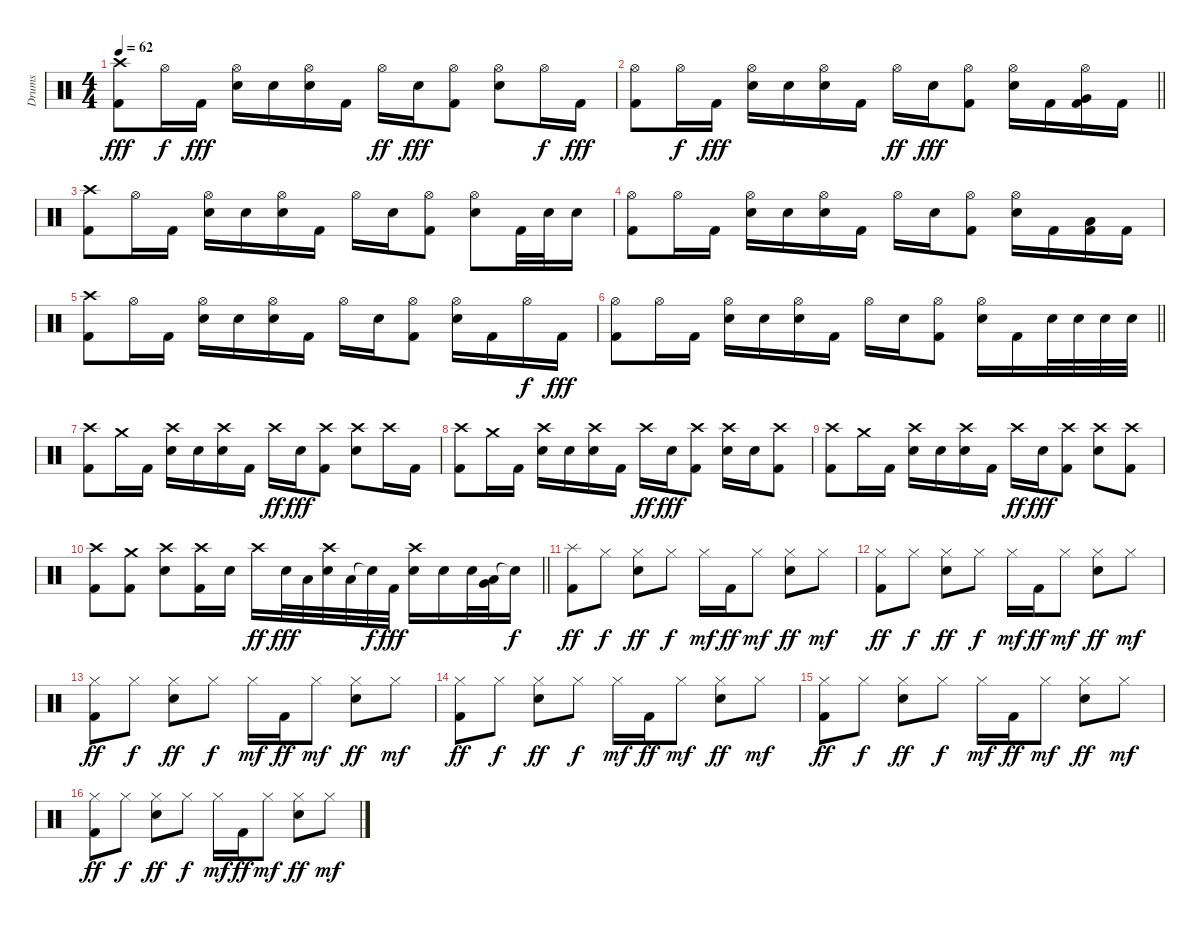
\track ("Drums" "Drums") {instrument percussion}
\staff {score}
\articulation defaults
\ts (4 4)
\tempo 62
\clef neutral
\ks c
("Crash high (hit)" "Kick (hit) 2").8{dy fff} "Hi-Hat (open)".16{dy f} "Kick (hit) 2".16{dy fff} ("Hi-Hat (open)" "Snare (hit) 2").16 "Snare (hit) 2".16 ("Hi-Hat (open)" "Snare (hit) 2").16 "Kick (hit) 2".16 "Hi-Hat (open)".16{dy ff} "Snare (hit) 2".16{dy fff} ("Hi-Hat (open)" "Kick (hit) 2").8 ("Hi-Hat (open)" "Snare (hit) 2").8 "Hi-Hat (open)".16{dy f} "Kick (hit) 2".16{dy fff} |
\barLineRight lightlight
("Hi-Hat (open)" "Kick (hit) 2").8 "Hi-Hat (open)".16{dy f} "Kick (hit) 2".16{dy fff} ("Hi-Hat (open)" "Snare (hit) 2").16 "Snare (hit) 2".16 ("Hi-Hat (open)" "Snare (hit) 2").16 "Kick (hit) 2".16 "Hi-Hat (open)".16{dy ff} "Snare (hit) 2".16{dy fff} ("Hi-Hat (open)" "Kick (hit) 2").8 ("Hi-Hat (open)" "Snare (hit) 2").16 "Kick (hit) 2".16 ("Hi-Hat (open)" "Very Low Tom (hit)" "Kick (hit) 2").16 "Kick (hit) 2".16 |
\section ("" "")
("Crash high (hit)" "Kick (hit) 2").8 "Hi-Hat (open)".16 "Kick (hit) 2".16 ("Hi-Hat (open)" "Snare (hit) 2").16 "Snare (hit) 2".16 ("Hi-Hat (open)" "Snare (hit) 2").16 "Kick (hit) 2".16 "Hi-Hat (open)".16 "Snare (hit) 2".16 ("Hi-Hat (open)" "Kick (hit) 2").8 ("Hi-Hat (open)" "Snare (hit) 2").8 "Kick (hit) 2".32 "Snare (hit) 2".32 "Snare (hit) 2".16 |
("Hi-Hat (open)" "Kick (hit) 2").8 "Hi-Hat (open)".16 "Kick (hit) 2".16 ("Hi-Hat (open)" "Snare (hit) 2").16 "Snare (hit) 2".16 ("Hi-Hat (open)" "Snare (hit) 2").16 "Kick (hit) 2".16 "Hi-Hat (open)".16 "Snare (hit) 2".16 ("Hi-Hat (open)" "Kick (hit) 2").8 ("Hi-Hat (open)" "Snare (hit) 2").16 "Kick (hit) 2".16 ("Low Tom (hit)" "Kick (hit) 2").16 "Kick (hit) 2".16 |
("Crash high (hit)" "Kick (hit) 2").8 "Hi-Hat (open)".16 "Kick (hit) 2".16 ("Hi-Hat (open)" "Snare (hit) 2").16 "Snare (hit) 2".16 ("Hi-Hat (open)" "Snare (hit) 2").16 "Kick (hit) 2".16 "Hi-Hat (open)".16 "Snare (hit) 2".16 ("Hi-Hat (open)" "Kick (hit) 2").8 ("Hi-Hat (open)" "Snare (hit) 2").16 "Kick (hit) 2".16 "Hi-Hat (open)".16{dy f} "Kick (hit) 2".16{dy fff} |
\barLineRight lightlight
("Hi-Hat (open)" "Kick (hit) 2").8 "Hi-Hat (open)".16 "Kick (hit) 2".16 ("Hi-Hat (open)" "Snare (hit) 2").16 "Snare (hit) 2".16 ("Hi-Hat (open)" "Snare (hit) 2").16 "Kick (hit) 2".16 "Hi-Hat (open)".16 "Snare (hit) 2".16 ("Hi-Hat (open)" "Kick (hit) 2").8 ("Hi-Hat (open)" "Snare (hit) 2").16 "Kick (hit) 2".16 "Snare (hit) 2".32 "Snare (hit) 2".32 "Snare (hit) 2".32 "Snare (hit) 2".32 |
\section ("" "")
("Crash high (hit)" "Kick (hit) 2").8 "Crash medium (hit)".16 "Kick (hit) 2".16 ("Crash high (hit)" "Snare (hit) 2").16 "Snare (hit) 2".16 ("Crash high (hit)" "Snare (hit) 2").16 "Kick (hit) 2".16 "Crash high (hit)".16{dy ff} "Snare (hit) 2".16{dy fff} ("Crash high (hit)" "Kick (hit) 2").8 ("Crash high (hit)" "Snare (hit) 2").8 "Crash high (hit)".16 "Kick (hit) 2".16 |
("Crash high (hit)" "Kick (hit) 2").8 "Crash medium (hit)".16 "Kick (hit) 2".16 ("Crash high (hit)" "Snare (hit) 2").16 "Snare (hit) 2".16 ("Crash high (hit)" "Snare (hit) 2").16 "Kick (hit) 2".16 "Crash high (hit)".16{dy ff} "Snare (hit) 2".16{dy fff} ("Crash high (hit)" "Kick (hit) 2").8 ("Crash high (hit)" "Snare (hit) 2").16 "Snare (hit) 2".16 ("Crash high (hit)" "Kick (hit) 2").8 |
("Crash high (hit)" "Kick (hit) 2").8 "Crash medium (hit)".16 "Kick (hit) 2".16 ("Crash high (hit)" "Snare (hit) 2").16 "Snare (hit) 2".16 ("Crash high (hit)" "Snare (hit) 2").16 "Kick (hit) 2".16 "Crash high (hit)".16{dy ff} "Snare (hit) 2".16{dy fff} ("Crash high (hit)" "Kick (hit) 2").8 ("Crash high (hit)" "Snare (hit) 2").8 ("Crash high (hit)" "Kick (hit) 2").8 |
\barLineRight lightlight
("Crash high (hit)" "Kick (hit) 2").8 ("Crash medium (hit)" "Kick (hit) 2").8 ("Crash high (hit)" "Snare (hit) 2").8 ("Crash high (hit)" "Kick (hit) 2").16 "Snare (hit) 2".16 "Crash high (hit)".16{dy ff} "Snare (hit) 2".32{dy fff} "Low Tom (hit)".32 ("Crash high (hit)" "Snare (hit) 2").32 "Low Tom (hit)".32 "Snare (hit)"{t}.32{dy f} "Kick (hit) 2".32{dy fff} ("Crash high (hit)" "Snare (hit) 2").16 "Snare (hit) 2".16 "Snare (hit) 2".32 ("Low Tom (hit)" "Very Low Tom (hit)").32 "Snare (hit)"{t}.16{dy f} |
\section ("" "")
("Splash (hit)" "Kick (hit) 2").8{dy ff} "Hi-Hat (closed)".8{dy f} ("Hi-Hat (closed)" "Snare (hit) 2").8{dy ff} "Hi-Hat (closed)".8{dy f} "Hi-Hat (closed)".16{dy mf} "Kick (hit) 2".16{dy ff} "Hi-Hat (closed)".8{dy mf} ("Hi-Hat (closed)" "Snare (hit) 2").8{dy ff} "Hi-Hat (closed)".8{dy mf} |
("Hi-Hat (closed)" "Kick (hit) 2").8{dy ff} "Hi-Hat (closed)".8{dy f} ("Hi-Hat (closed)" "Snare (hit) 2").8{dy ff} "Hi-Hat (closed)".8{dy f} "Hi-Hat (closed)".16{dy mf} "Kick (hit) 2".16{dy ff} "Hi-Hat (closed)".8{dy mf} ("Hi-Hat (closed)" "Snare (hit) 2").8{dy ff} "Hi-Hat (closed)".8{dy mf} |
("Hi-Hat (closed)" "Kick (hit) 2").8{dy ff} "Hi-Hat (closed)".8{dy f} ("Hi-Hat (closed)" "Snare (hit) 2").8{dy ff} "Hi-Hat (closed)".8{dy f} "Hi-Hat (closed)".16{dy mf} "Kick (hit) 2".16{dy ff} "Hi-Hat (closed)".8{dy mf} ("Hi-Hat (closed)" "Snare (hit) 2").8{dy ff} "Hi-Hat (closed)".8{dy mf} |
("Hi-Hat (closed)" "Kick (hit) 2").8{dy ff} "Hi-Hat (closed)".8{dy f} ("Hi-Hat (closed)" "Snare (hit) 2").8{dy ff} "Hi-Hat (closed)".8{dy f} "Hi-Hat (closed)".16{dy mf} "Kick (hit) 2".16{dy ff} "Hi-Hat (closed)".8{dy mf} ("Hi-Hat (closed)" "Snare (hit) 2").8{dy ff} "Hi-Hat (closed)".8{dy mf} |
("Hi-Hat (closed)" "Kick (hit) 2").8{dy ff} "Hi-Hat (closed)".8{dy f} ("Hi-Hat (closed)" "Snare (hit) 2").8{dy ff} "Hi-Hat (closed)".8{dy f} "Hi-Hat (closed)".16{dy mf} "Kick (hit) 2".16{dy ff} "Hi-Hat (closed)".8{dy mf} ("Hi-Hat (closed)" "Snare (hit) 2").8{dy ff} "Hi-Hat (closed)".8{dy mf} |
("Hi-Hat (closed)" "Kick (hit) 2").8{dy ff} "Hi-Hat (closed)".8{dy f} ("Hi-Hat (closed)" "Snare (hit) 2").8{dy ff} "Hi-Hat (closed)".8{dy f} "Hi-Hat (closed)".16{dy mf} "Kick (hit) 2".16{dy ff} "Hi-Hat (closed)".8{dy mf} ("Hi-Hat (closed)" "Snare (hit) 2").8{dy ff} "Hi-Hat (closed)".8{dy mf}
